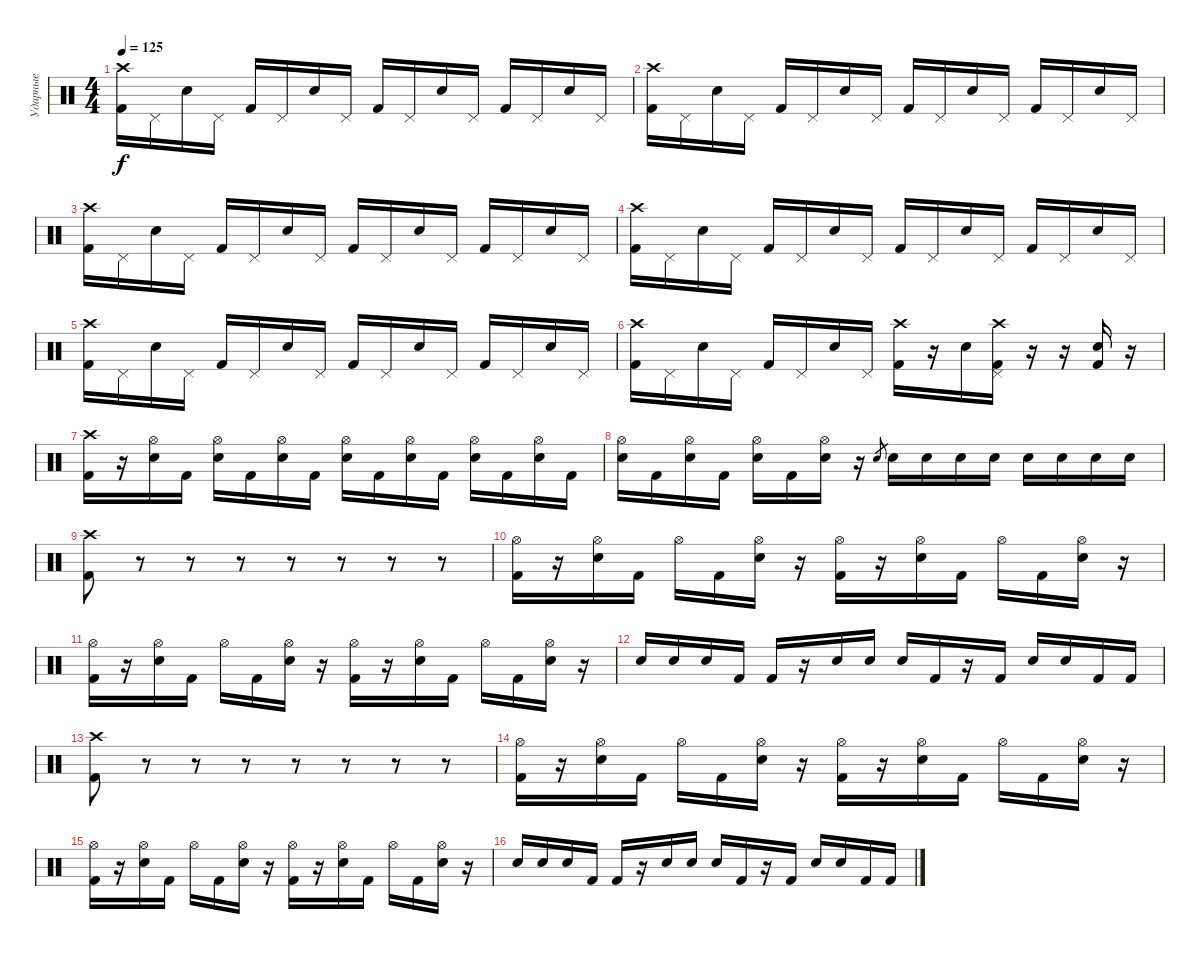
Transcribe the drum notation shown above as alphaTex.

\track ("Ударные" "Ударные") {instrument percussion}
\staff {score}
\articulation defaults
\ts (4 4)
\tempo 125
\clef neutral
\ks c
("Crash high (hit)" "Kick (hit) 2").16{dy f} "Pedal Hi-Hat (hit)".16 "Electric Snare (hit)".16 "Pedal Hi-Hat (hit)".16 "Kick (hit) 2".16 "Pedal Hi-Hat (hit)".16 "Electric Snare (hit)".16 "Pedal Hi-Hat (hit)".16 "Kick (hit) 2".16 "Pedal Hi-Hat (hit)".16 "Electric Snare (hit)".16 "Pedal Hi-Hat (hit)".16 "Kick (hit) 2".16 "Pedal Hi-Hat (hit)".16 "Electric Snare (hit)".16 "Pedal Hi-Hat (hit)".16 |
("Crash high (hit)" "Kick (hit) 2").16 "Pedal Hi-Hat (hit)".16 "Electric Snare (hit)".16 "Pedal Hi-Hat (hit)".16 "Kick (hit) 2".16 "Pedal Hi-Hat (hit)".16 "Electric Snare (hit)".16 "Pedal Hi-Hat (hit)".16 "Kick (hit) 2".16 "Pedal Hi-Hat (hit)".16 "Electric Snare (hit)".16 "Pedal Hi-Hat (hit)".16 "Kick (hit) 2".16 "Pedal Hi-Hat (hit)".16 "Electric Snare (hit)".16 "Pedal Hi-Hat (hit)".16 |
("Crash high (hit)" "Kick (hit) 2").16 "Pedal Hi-Hat (hit)".16 "Electric Snare (hit)".16 "Pedal Hi-Hat (hit)".16 "Kick (hit) 2".16 "Pedal Hi-Hat (hit)".16 "Electric Snare (hit)".16 "Pedal Hi-Hat (hit)".16 "Kick (hit) 2".16 "Pedal Hi-Hat (hit)".16 "Electric Snare (hit)".16 "Pedal Hi-Hat (hit)".16 "Kick (hit) 2".16 "Pedal Hi-Hat (hit)".16 "Electric Snare (hit)".16 "Pedal Hi-Hat (hit)".16 |
("Crash high (hit)" "Kick (hit) 2").16 "Pedal Hi-Hat (hit)".16 "Electric Snare (hit)".16 "Pedal Hi-Hat (hit)".16 "Kick (hit) 2".16 "Pedal Hi-Hat (hit)".16 "Electric Snare (hit)".16 "Pedal Hi-Hat (hit)".16 "Kick (hit) 2".16 "Pedal Hi-Hat (hit)".16 "Electric Snare (hit)".16 "Pedal Hi-Hat (hit)".16 "Kick (hit) 2".16 "Pedal Hi-Hat (hit)".16 "Electric Snare (hit)".16 "Pedal Hi-Hat (hit)".16 |
("Crash high (hit)" "Kick (hit) 2").16 "Pedal Hi-Hat (hit)".16 "Electric Snare (hit)".16 "Pedal Hi-Hat (hit)".16 "Kick (hit) 2".16 "Pedal Hi-Hat (hit)".16 "Electric Snare (hit)".16 "Pedal Hi-Hat (hit)".16 "Kick (hit) 2".16 "Pedal Hi-Hat (hit)".16 "Electric Snare (hit)".16 "Pedal Hi-Hat (hit)".16 "Kick (hit) 2".16 "Pedal Hi-Hat (hit)".16 "Electric Snare (hit)".16 "Pedal Hi-Hat (hit)".16 |
("Crash high (hit)" "Kick (hit) 2").16 "Pedal Hi-Hat (hit)".16 "Electric Snare (hit)".16 "Pedal Hi-Hat (hit)".16 "Kick (hit) 2".16 "Pedal Hi-Hat (hit)".16 "Electric Snare (hit)".16 "Pedal Hi-Hat (hit)".16 ("Crash high (hit)" "Kick (hit) 2").16 r.16 "Electric Snare (hit)".16 ("Crash high (hit)" "Pedal Hi-Hat (hit)" "Kick (hit) 2").16 r.16 r.16 ("Electric Snare (hit)" "Kick (hit) 2").16 r.16 |
("Crash high (hit)" "Kick (hit) 2").16 r.16 ("Hi-Hat (open)" "Electric Snare (hit)").16 "Kick (hit) 2".16 ("Hi-Hat (open)" "Electric Snare (hit)").16 "Kick (hit) 2".16 ("Hi-Hat (open)" "Electric Snare (hit)").16 "Kick (hit) 2".16 ("Hi-Hat (open)" "Electric Snare (hit)").16 "Kick (hit) 2".16 ("Hi-Hat (open)" "Electric Snare (hit)").16 "Kick (hit) 2".16 ("Hi-Hat (open)" "Electric Snare (hit)").16 "Kick (hit) 2".16 ("Hi-Hat (open)" "Electric Snare (hit)").16 "Kick (hit) 2".16 |
("Hi-Hat (open)" "Electric Snare (hit)").16 "Kick (hit) 2".16 ("Hi-Hat (open)" "Electric Snare (hit)").16 "Kick (hit) 2".16 ("Hi-Hat (open)" "Electric Snare (hit)").16 "Kick (hit) 2".16 ("Hi-Hat (open)" "Electric Snare (hit)").16 r.16 "Electric Snare (hit)".8{gr} "Electric Snare (hit)".16 "Electric Snare (hit)".16 "Electric Snare (hit)".16 "Electric Snare (hit)".16 "Electric Snare (hit)".16 "Electric Snare (hit)".16 "Electric Snare (hit)".16 "Electric Snare (hit)".16 |
("Crash high (hit)" "Kick (hit) 2").8 r.8 r.8 r.8 r.8 r.8 r.8 r.8 |
("Hi-Hat (open)" "Kick (hit) 2").16 r.16 ("Hi-Hat (open)" "Electric Snare (hit)").16 "Kick (hit) 2".16 "Hi-Hat (open)".16 "Kick (hit) 2".16 ("Hi-Hat (open)" "Electric Snare (hit)").16 r.16 ("Hi-Hat (open)" "Kick (hit) 2").16 r.16 ("Hi-Hat (open)" "Electric Snare (hit)").16 "Kick (hit) 2".16 "Hi-Hat (open)".16 "Kick (hit) 2".16 ("Hi-Hat (open)" "Electric Snare (hit)").16 r.16 |
("Hi-Hat (open)" "Kick (hit) 2").16 r.16 ("Hi-Hat (open)" "Electric Snare (hit)").16 "Kick (hit) 2".16 "Hi-Hat (open)".16 "Kick (hit) 2".16 ("Hi-Hat (open)" "Electric Snare (hit)").16 r.16 ("Hi-Hat (open)" "Kick (hit) 2").16 r.16 ("Hi-Hat (open)" "Electric Snare (hit)").16 "Kick (hit) 2".16 "Hi-Hat (open)".16 "Kick (hit) 2".16 ("Hi-Hat (open)" "Electric Snare (hit)").16 r.16 |
"Electric Snare (hit)".16 "Electric Snare (hit)".16 "Electric Snare (hit)".16 "Kick (hit) 2".16 "Kick (hit) 2".16 r.16 "Electric Snare (hit)".16 "Electric Snare (hit)".16 "Electric Snare (hit)".16 "Kick (hit) 2".16 r.16 "Kick (hit) 2".16 "Electric Snare (hit)".16 "Electric Snare (hit)".16 "Kick (hit) 2".16 "Kick (hit) 2".16 |
("Crash high (hit)" "Kick (hit) 2").8 r.8 r.8 r.8 r.8 r.8 r.8 r.8 |
("Hi-Hat (open)" "Kick (hit) 2").16 r.16 ("Hi-Hat (open)" "Electric Snare (hit)").16 "Kick (hit) 2".16 "Hi-Hat (open)".16 "Kick (hit) 2".16 ("Hi-Hat (open)" "Electric Snare (hit)").16 r.16 ("Hi-Hat (open)" "Kick (hit) 2").16 r.16 ("Hi-Hat (open)" "Electric Snare (hit)").16 "Kick (hit) 2".16 "Hi-Hat (open)".16 "Kick (hit) 2".16 ("Hi-Hat (open)" "Electric Snare (hit)").16 r.16 |
("Hi-Hat (open)" "Kick (hit) 2").16 r.16 ("Hi-Hat (open)" "Electric Snare (hit)").16 "Kick (hit) 2".16 "Hi-Hat (open)".16 "Kick (hit) 2".16 ("Hi-Hat (open)" "Electric Snare (hit)").16 r.16 ("Hi-Hat (open)" "Kick (hit) 2").16 r.16 ("Hi-Hat (open)" "Electric Snare (hit)").16 "Kick (hit) 2".16 "Hi-Hat (open)".16 "Kick (hit) 2".16 ("Hi-Hat (open)" "Electric Snare (hit)").16 r.16 |
"Electric Snare (hit)".16 "Electric Snare (hit)".16 "Electric Snare (hit)".16 "Kick (hit) 2".16 "Kick (hit) 2".16 r.16 "Electric Snare (hit)".16 "Electric Snare (hit)".16 "Electric Snare (hit)".16 "Kick (hit) 2".16 r.16 "Kick (hit) 2".16 "Electric Snare (hit)".16 "Electric Snare (hit)".16 "Kick (hit) 2".16 "Kick (hit) 2".16
